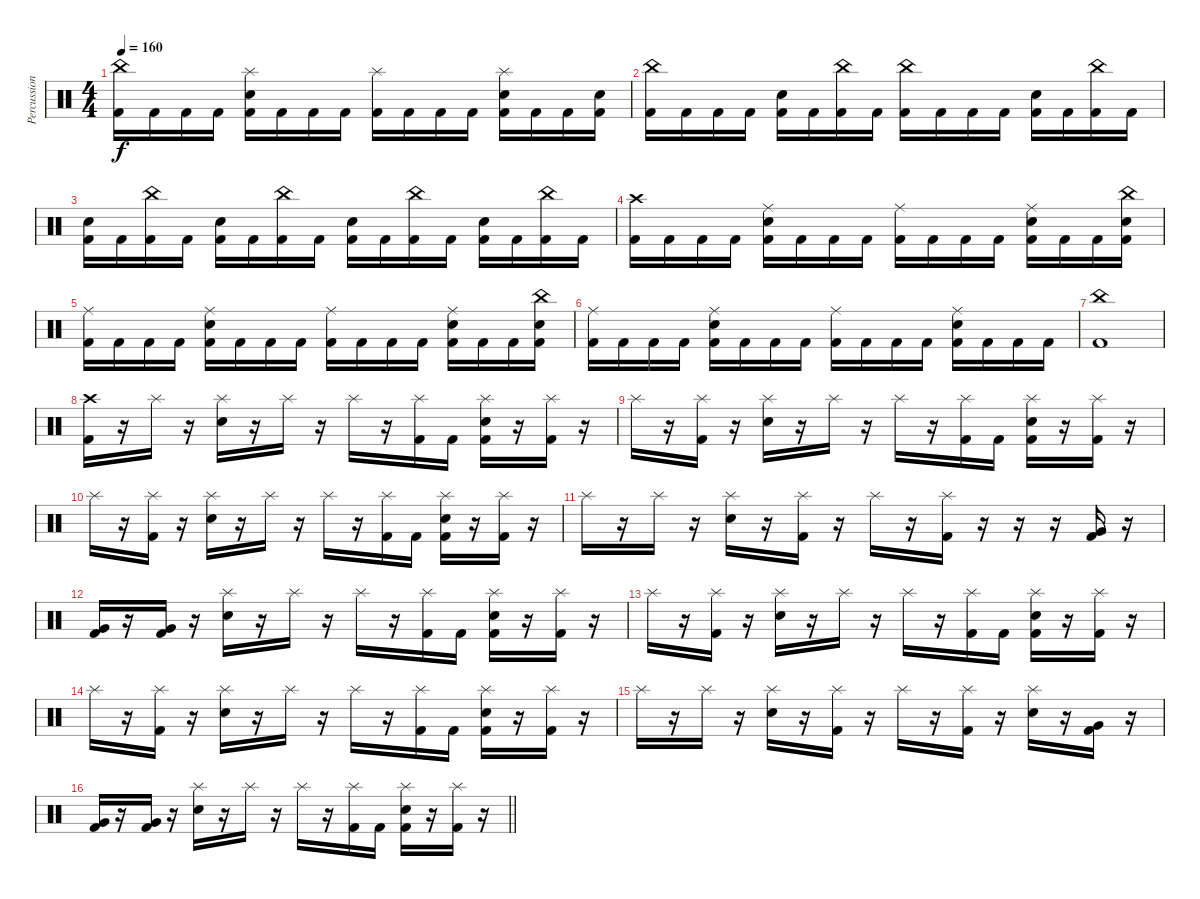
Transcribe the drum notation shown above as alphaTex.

\track ("Percussions" "Percussion") {instrument percussion bank 1}
\staff {score}
\articulation defaults
\ts (4 4)
\tempo 160
\clef neutral
\ks c
("Kick (hit) 2" "China (hit)").16{dy f} "Kick (hit) 2".16 "Kick (hit) 2".16 "Kick (hit) 2".16 ("Kick (hit) 2" "Electric Snare (hit)" "Splash (hit)").16 "Kick (hit) 2".16 "Kick (hit) 2".16 "Kick (hit) 2".16 ("Kick (hit) 2" "Splash (hit)").16 "Kick (hit) 2".16 "Kick (hit) 2".16 "Kick (hit) 2".16 ("Kick (hit) 2" "Electric Snare (hit)" "Splash (hit)").16 "Kick (hit) 2".16 "Kick (hit) 2".16 ("Kick (hit) 2" "Electric Snare (hit)").16 |
("Kick (hit) 2" "China (hit)").16 "Kick (hit) 2".16 "Kick (hit) 2".16 "Kick (hit) 2".16 ("Kick (hit) 2" "Electric Snare (hit)").16 "Kick (hit) 2".16 ("Kick (hit) 2" "China (hit)").16 "Kick (hit) 2".16 ("Kick (hit) 2" "China (hit)").16 "Kick (hit) 2".16 "Kick (hit) 2".16 "Kick (hit) 2".16 ("Kick (hit) 2" "Electric Snare (hit)").16 "Kick (hit) 2".16 ("Kick (hit) 2" "China (hit)").16 "Kick (hit) 2".16 |
("Kick (hit) 2" "Electric Snare (hit)").16 "Kick (hit) 2".16 ("Kick (hit) 2" "China (hit)").16 "Kick (hit) 2".16 ("Kick (hit) 2" "Electric Snare (hit)").16 "Kick (hit) 2".16 ("Kick (hit) 2" "China (hit)").16 "Kick (hit) 2".16 ("Kick (hit) 2" "Electric Snare (hit)").16 "Kick (hit) 2".16 ("Kick (hit) 2" "China (hit)").16 "Kick (hit) 2".16 ("Kick (hit) 2" "Electric Snare (hit)").16 "Kick (hit) 2".16 ("Kick (hit) 2" "China (hit)").16 "Kick (hit) 2".16 |
("Kick (hit) 2" "Crash high (hit)").16 "Kick (hit) 2".16 "Kick (hit) 2".16 "Kick (hit) 2".16 ("Kick (hit) 2" "Electric Snare (hit)" "Ride (middle)").16 "Kick (hit) 2".16 "Kick (hit) 2".16 "Kick (hit) 2".16 ("Kick (hit) 2" "Ride (middle)").16 "Kick (hit) 2".16 "Kick (hit) 2".16 "Kick (hit) 2".16 ("Kick (hit) 2" "Electric Snare (hit)" "Ride (middle)").16 "Kick (hit) 2".16 "Kick (hit) 2".16 ("Kick (hit) 2" "Electric Snare (hit)" "China (hit)").16 |
("Kick (hit) 2" "Ride (middle)").16 "Kick (hit) 2".16 "Kick (hit) 2".16 "Kick (hit) 2".16 ("Kick (hit) 2" "Electric Snare (hit)" "Ride (middle)").16 "Kick (hit) 2".16 "Kick (hit) 2".16 "Kick (hit) 2".16 ("Kick (hit) 2" "Ride (middle)").16 "Kick (hit) 2".16 "Kick (hit) 2".16 "Kick (hit) 2".16 ("Kick (hit) 2" "Electric Snare (hit)" "Ride (middle)").16 "Kick (hit) 2".16 "Kick (hit) 2".16 ("Kick (hit) 2" "Electric Snare (hit)" "China (hit)").16 |
("Kick (hit) 2" "Ride (middle)").16 "Kick (hit) 2".16 "Kick (hit) 2".16 "Kick (hit) 2".16 ("Kick (hit) 2" "Electric Snare (hit)" "Ride (middle)").16 "Kick (hit) 2".16 "Kick (hit) 2".16 "Kick (hit) 2".16 ("Kick (hit) 2" "Ride (middle)").16 "Kick (hit) 2".16 "Kick (hit) 2".16 "Kick (hit) 2".16 ("Kick (hit) 2" "Electric Snare (hit)" "Ride (middle)").16 "Kick (hit) 2".16 "Kick (hit) 2".16 "Kick (hit) 2".16 |
("Kick (hit) 2" "China (hit)").1 |
("Kick (hit) 2" "Crash high (hit)").16 r.16 "Splash (hit)".16 r.16 ("Electric Snare (hit)" "Splash (hit)").16 r.16 "Splash (hit)".16 r.16 "Splash (hit)".16 r.16 ("Kick (hit) 2" "Splash (hit)").16 "Kick (hit) 2".16 ("Kick (hit) 2" "Electric Snare (hit)" "Splash (hit)").16 r.16 ("Kick (hit) 2" "Splash (hit)").16 r.16 |
"Splash (hit)".16 r.16 ("Kick (hit) 2" "Splash (hit)").16 r.16 ("Electric Snare (hit)" "Splash (hit)").16 r.16 "Splash (hit)".16 r.16 "Splash (hit)".16 r.16 ("Kick (hit) 2" "Splash (hit)").16 "Kick (hit) 2".16 ("Kick (hit) 2" "Electric Snare (hit)" "Splash (hit)").16 r.16 ("Kick (hit) 2" "Splash (hit)").16 r.16 |
"Splash (hit)".16 r.16 ("Kick (hit) 2" "Splash (hit)").16 r.16 ("Electric Snare (hit)" "Splash (hit)").16 r.16 "Splash (hit)".16 r.16 "Splash (hit)".16 r.16 ("Kick (hit) 2" "Splash (hit)").16 "Kick (hit) 2".16 ("Kick (hit) 2" "Electric Snare (hit)" "Splash (hit)").16 r.16 ("Kick (hit) 2" "Splash (hit)").16 r.16 |
"Splash (hit)".16 r.16 "Splash (hit)".16 r.16 ("Electric Snare (hit)" "Splash (hit)").16 r.16 ("Kick (hit) 2" "Splash (hit)").16 r.16 "Splash (hit)".16 r.16 ("Kick (hit) 2" "Splash (hit)").16 r.16 r.16 r.16 ("Kick (hit) 2" "Very Low Tom (hit)").16 r.16 |
("Kick (hit) 2" "Very Low Tom (hit)").16 r.16 ("Kick (hit) 2" "Very Low Tom (hit)").16 r.16 ("Electric Snare (hit)" "Splash (hit)").16 r.16 "Splash (hit)".16 r.16 "Splash (hit)".16 r.16 ("Kick (hit) 2" "Splash (hit)").16 "Kick (hit) 2".16 ("Kick (hit) 2" "Electric Snare (hit)" "Splash (hit)").16 r.16 ("Kick (hit) 2" "Splash (hit)").16 r.16 |
"Splash (hit)".16 r.16 ("Kick (hit) 2" "Splash (hit)").16 r.16 ("Electric Snare (hit)" "Splash (hit)").16 r.16 "Splash (hit)".16 r.16 "Splash (hit)".16 r.16 ("Kick (hit) 2" "Splash (hit)").16 "Kick (hit) 2".16 ("Kick (hit) 2" "Electric Snare (hit)" "Splash (hit)").16 r.16 ("Kick (hit) 2" "Splash (hit)").16 r.16 |
"Splash (hit)".16 r.16 ("Kick (hit) 2" "Splash (hit)").16 r.16 ("Electric Snare (hit)" "Splash (hit)").16 r.16 "Splash (hit)".16 r.16 "Splash (hit)".16 r.16 ("Kick (hit) 2" "Splash (hit)").16 "Kick (hit) 2".16 ("Kick (hit) 2" "Electric Snare (hit)" "Splash (hit)").16 r.16 ("Kick (hit) 2" "Splash (hit)").16 r.16 |
"Splash (hit)".16 r.16 "Splash (hit)".16 r.16 ("Electric Snare (hit)" "Splash (hit)").16 r.16 ("Kick (hit) 2" "Splash (hit)").16 r.16 "Splash (hit)".16 r.16 ("Kick (hit) 2" "Splash (hit)").16 r.16 ("Electric Snare (hit)" "Splash (hit)").16 r.16 ("Kick (hit) 2" "Very Low Tom (hit)").16 r.16 |
\barLineRight lightlight
("Kick (hit) 2" "Very Low Tom (hit)").16 r.16 ("Kick (hit) 2" "Very Low Tom (hit)").16 r.16 ("Electric Snare (hit)" "Splash (hit)").16 r.16 "Splash (hit)".16 r.16 "Splash (hit)".16 r.16 ("Kick (hit) 2" "Splash (hit)").16 "Kick (hit) 2".16 ("Kick (hit) 2" "Electric Snare (hit)" "Splash (hit)").16 r.16 ("Kick (hit) 2" "Splash (hit)").16 r.16
